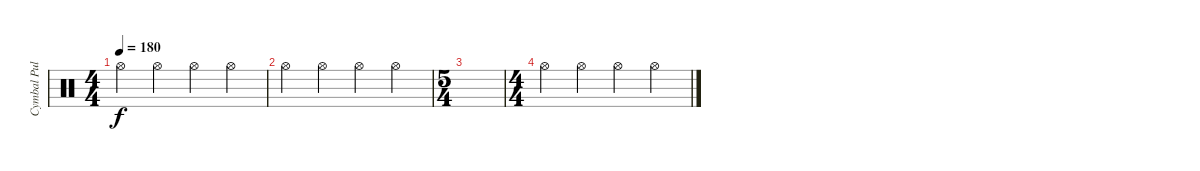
\track ("Cymbal Pulse" "Cymbal Pul") {instrument percussion}
\staff {score}
\articulation defaults
\ts (4 4)
\tempo 180
\clef neutral
\ks c "Hi-Hat (open)".4{dy f} "Hi-Hat (open)".4 "Hi-Hat (open)".4 "Hi-Hat (open)".4
|
"Hi-Hat (open)".4 "Hi-Hat (open)".4 "Hi-Hat (open)".4 "Hi-Hat (open)".4 |
\ts (5 4)
|
\ts (4 4)
"Hi-Hat (open)".4 "Hi-Hat (open)".4 "Hi-Hat (open)".4 "Hi-Hat (open)".4
